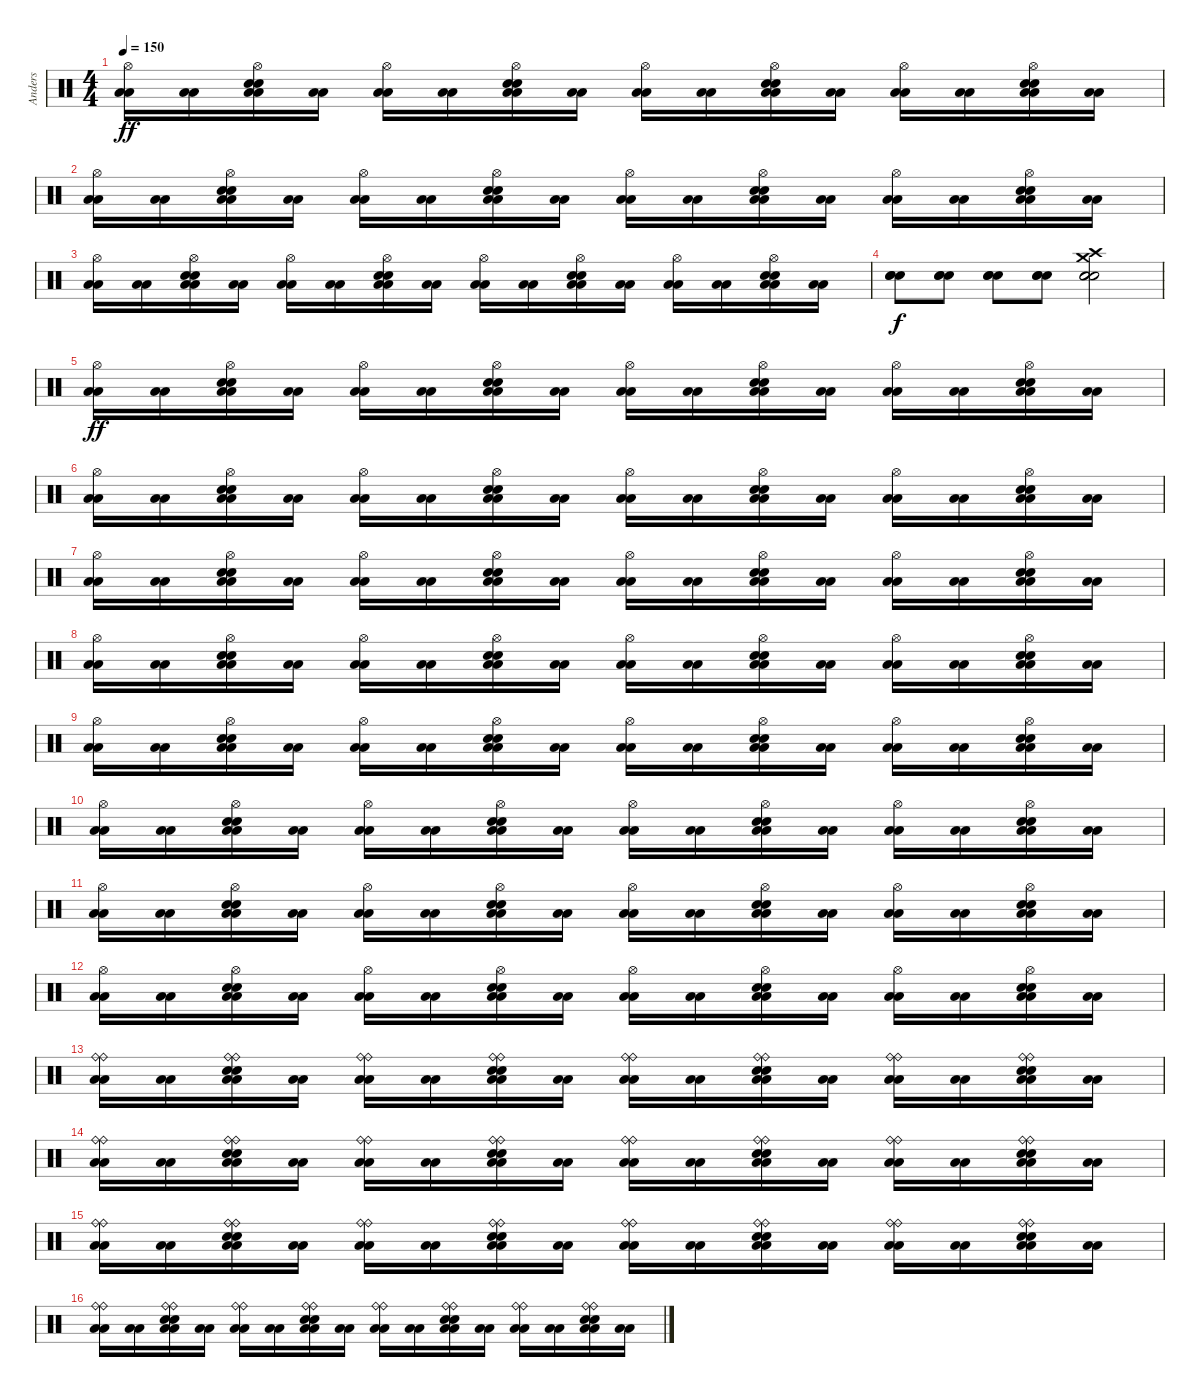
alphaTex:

\track ("Anders" "Anders") {instrument percussion}
\staff {score}
\articulation defaults
\ts (4 4)
\tempo 150
\clef neutral
\ks c
("Hi-Hat (open)" "Low Floor Tom (hit)" "Low Floor Tom (hit)").16{dy ff} ("Low Floor Tom (hit)" "Low Floor Tom (hit)").16 ("Hi-Hat (open)" "Electric Snare (hit)" "Electric Snare (hit)" "Low Floor Tom (hit)" "Low Floor Tom (hit)").16 ("Low Floor Tom (hit)" "Low Floor Tom (hit)").16 ("Hi-Hat (open)" "Low Floor Tom (hit)" "Low Floor Tom (hit)").16 ("Low Floor Tom (hit)" "Low Floor Tom (hit)").16 ("Hi-Hat (open)" "Electric Snare (hit)" "Electric Snare (hit)" "Low Floor Tom (hit)" "Low Floor Tom (hit)").16 ("Low Floor Tom (hit)" "Low Floor Tom (hit)").16 ("Hi-Hat (open)" "Low Floor Tom (hit)" "Low Floor Tom (hit)").16 ("Low Floor Tom (hit)" "Low Floor Tom (hit)").16 ("Hi-Hat (open)" "Electric Snare (hit)" "Electric Snare (hit)" "Low Floor Tom (hit)" "Low Floor Tom (hit)").16 ("Low Floor Tom (hit)" "Low Floor Tom (hit)").16 ("Hi-Hat (open)" "Low Floor Tom (hit)" "Low Floor Tom (hit)").16 ("Low Floor Tom (hit)" "Low Floor Tom (hit)").16 ("Hi-Hat (open)" "Electric Snare (hit)" "Electric Snare (hit)" "Low Floor Tom (hit)" "Low Floor Tom (hit)").16 ("Low Floor Tom (hit)" "Low Floor Tom (hit)").16 |
("Hi-Hat (open)" "Low Floor Tom (hit)" "Low Floor Tom (hit)").16 ("Low Floor Tom (hit)" "Low Floor Tom (hit)").16 ("Hi-Hat (open)" "Electric Snare (hit)" "Electric Snare (hit)" "Low Floor Tom (hit)" "Low Floor Tom (hit)").16 ("Low Floor Tom (hit)" "Low Floor Tom (hit)").16 ("Hi-Hat (open)" "Low Floor Tom (hit)" "Low Floor Tom (hit)").16 ("Low Floor Tom (hit)" "Low Floor Tom (hit)").16 ("Hi-Hat (open)" "Electric Snare (hit)" "Electric Snare (hit)" "Low Floor Tom (hit)" "Low Floor Tom (hit)").16 ("Low Floor Tom (hit)" "Low Floor Tom (hit)").16 ("Hi-Hat (open)" "Low Floor Tom (hit)" "Low Floor Tom (hit)").16 ("Low Floor Tom (hit)" "Low Floor Tom (hit)").16 ("Hi-Hat (open)" "Electric Snare (hit)" "Electric Snare (hit)" "Low Floor Tom (hit)" "Low Floor Tom (hit)").16 ("Low Floor Tom (hit)" "Low Floor Tom (hit)").16 ("Hi-Hat (open)" "Low Floor Tom (hit)" "Low Floor Tom (hit)").16 ("Low Floor Tom (hit)" "Low Floor Tom (hit)").16 ("Hi-Hat (open)" "Electric Snare (hit)" "Electric Snare (hit)" "Low Floor Tom (hit)" "Low Floor Tom (hit)").16 ("Low Floor Tom (hit)" "Low Floor Tom (hit)").16 |
("Hi-Hat (open)" "Low Floor Tom (hit)" "Low Floor Tom (hit)").16 ("Low Floor Tom (hit)" "Low Floor Tom (hit)").16 ("Hi-Hat (open)" "Electric Snare (hit)" "Electric Snare (hit)" "Low Floor Tom (hit)" "Low Floor Tom (hit)").16 ("Low Floor Tom (hit)" "Low Floor Tom (hit)").16 ("Hi-Hat (open)" "Low Floor Tom (hit)" "Low Floor Tom (hit)").16 ("Low Floor Tom (hit)" "Low Floor Tom (hit)").16 ("Hi-Hat (open)" "Electric Snare (hit)" "Electric Snare (hit)" "Low Floor Tom (hit)" "Low Floor Tom (hit)").16 ("Low Floor Tom (hit)" "Low Floor Tom (hit)").16 ("Hi-Hat (open)" "Low Floor Tom (hit)" "Low Floor Tom (hit)").16 ("Low Floor Tom (hit)" "Low Floor Tom (hit)").16 ("Hi-Hat (open)" "Electric Snare (hit)" "Electric Snare (hit)" "Low Floor Tom (hit)" "Low Floor Tom (hit)").16 ("Low Floor Tom (hit)" "Low Floor Tom (hit)").16 ("Hi-Hat (open)" "Low Floor Tom (hit)" "Low Floor Tom (hit)").16 ("Low Floor Tom (hit)" "Low Floor Tom (hit)").16 ("Hi-Hat (open)" "Electric Snare (hit)" "Electric Snare (hit)" "Low Floor Tom (hit)" "Low Floor Tom (hit)").16 ("Low Floor Tom (hit)" "Low Floor Tom (hit)").16 |
("Electric Snare (hit)" "Electric Snare (hit)" "Electric Snare (hit)").8{dy f} ("Electric Snare (hit)" "Electric Snare (hit)" "Electric Snare (hit)").8 ("Electric Snare (hit)" "Electric Snare (hit)" "Electric Snare (hit)").8 ("Electric Snare (hit)" "Electric Snare (hit)" "Electric Snare (hit)").8 ("Crash medium (hit)" "Crash high (hit)" "Electric Snare (hit)" "Electric Snare (hit)" "Electric Snare (hit)").2 |
("Hi-Hat (open)" "Low Floor Tom (hit)" "Low Floor Tom (hit)").16{dy ff} ("Low Floor Tom (hit)" "Low Floor Tom (hit)").16 ("Hi-Hat (open)" "Electric Snare (hit)" "Electric Snare (hit)" "Low Floor Tom (hit)" "Low Floor Tom (hit)").16 ("Low Floor Tom (hit)" "Low Floor Tom (hit)").16 ("Hi-Hat (open)" "Low Floor Tom (hit)" "Low Floor Tom (hit)").16 ("Low Floor Tom (hit)" "Low Floor Tom (hit)").16 ("Hi-Hat (open)" "Electric Snare (hit)" "Electric Snare (hit)" "Low Floor Tom (hit)" "Low Floor Tom (hit)").16 ("Low Floor Tom (hit)" "Low Floor Tom (hit)").16 ("Hi-Hat (open)" "Low Floor Tom (hit)" "Low Floor Tom (hit)").16 ("Low Floor Tom (hit)" "Low Floor Tom (hit)").16 ("Hi-Hat (open)" "Electric Snare (hit)" "Electric Snare (hit)" "Low Floor Tom (hit)" "Low Floor Tom (hit)").16 ("Low Floor Tom (hit)" "Low Floor Tom (hit)").16 ("Hi-Hat (open)" "Low Floor Tom (hit)" "Low Floor Tom (hit)").16 ("Low Floor Tom (hit)" "Low Floor Tom (hit)").16 ("Hi-Hat (open)" "Electric Snare (hit)" "Electric Snare (hit)" "Low Floor Tom (hit)" "Low Floor Tom (hit)").16 ("Low Floor Tom (hit)" "Low Floor Tom (hit)").16 |
("Hi-Hat (open)" "Low Floor Tom (hit)" "Low Floor Tom (hit)").16 ("Low Floor Tom (hit)" "Low Floor Tom (hit)").16 ("Hi-Hat (open)" "Electric Snare (hit)" "Electric Snare (hit)" "Low Floor Tom (hit)" "Low Floor Tom (hit)").16 ("Low Floor Tom (hit)" "Low Floor Tom (hit)").16 ("Hi-Hat (open)" "Low Floor Tom (hit)" "Low Floor Tom (hit)").16 ("Low Floor Tom (hit)" "Low Floor Tom (hit)").16 ("Hi-Hat (open)" "Electric Snare (hit)" "Electric Snare (hit)" "Low Floor Tom (hit)" "Low Floor Tom (hit)").16 ("Low Floor Tom (hit)" "Low Floor Tom (hit)").16 ("Hi-Hat (open)" "Low Floor Tom (hit)" "Low Floor Tom (hit)").16 ("Low Floor Tom (hit)" "Low Floor Tom (hit)").16 ("Hi-Hat (open)" "Electric Snare (hit)" "Electric Snare (hit)" "Low Floor Tom (hit)" "Low Floor Tom (hit)").16 ("Low Floor Tom (hit)" "Low Floor Tom (hit)").16 ("Hi-Hat (open)" "Low Floor Tom (hit)" "Low Floor Tom (hit)").16 ("Low Floor Tom (hit)" "Low Floor Tom (hit)").16 ("Hi-Hat (open)" "Electric Snare (hit)" "Electric Snare (hit)" "Low Floor Tom (hit)" "Low Floor Tom (hit)").16 ("Low Floor Tom (hit)" "Low Floor Tom (hit)").16 |
("Hi-Hat (open)" "Low Floor Tom (hit)" "Low Floor Tom (hit)").16 ("Low Floor Tom (hit)" "Low Floor Tom (hit)").16 ("Hi-Hat (open)" "Electric Snare (hit)" "Electric Snare (hit)" "Low Floor Tom (hit)" "Low Floor Tom (hit)").16 ("Low Floor Tom (hit)" "Low Floor Tom (hit)").16 ("Hi-Hat (open)" "Low Floor Tom (hit)" "Low Floor Tom (hit)").16 ("Low Floor Tom (hit)" "Low Floor Tom (hit)").16 ("Hi-Hat (open)" "Electric Snare (hit)" "Electric Snare (hit)" "Low Floor Tom (hit)" "Low Floor Tom (hit)").16 ("Low Floor Tom (hit)" "Low Floor Tom (hit)").16 ("Hi-Hat (open)" "Low Floor Tom (hit)" "Low Floor Tom (hit)").16 ("Low Floor Tom (hit)" "Low Floor Tom (hit)").16 ("Hi-Hat (open)" "Electric Snare (hit)" "Electric Snare (hit)" "Low Floor Tom (hit)" "Low Floor Tom (hit)").16 ("Low Floor Tom (hit)" "Low Floor Tom (hit)").16 ("Hi-Hat (open)" "Low Floor Tom (hit)" "Low Floor Tom (hit)").16 ("Low Floor Tom (hit)" "Low Floor Tom (hit)").16 ("Hi-Hat (open)" "Electric Snare (hit)" "Electric Snare (hit)" "Low Floor Tom (hit)" "Low Floor Tom (hit)").16 ("Low Floor Tom (hit)" "Low Floor Tom (hit)").16 |
("Hi-Hat (open)" "Low Floor Tom (hit)" "Low Floor Tom (hit)").16 ("Low Floor Tom (hit)" "Low Floor Tom (hit)").16 ("Hi-Hat (open)" "Electric Snare (hit)" "Electric Snare (hit)" "Low Floor Tom (hit)" "Low Floor Tom (hit)").16 ("Low Floor Tom (hit)" "Low Floor Tom (hit)").16 ("Hi-Hat (open)" "Low Floor Tom (hit)" "Low Floor Tom (hit)").16 ("Low Floor Tom (hit)" "Low Floor Tom (hit)").16 ("Hi-Hat (open)" "Electric Snare (hit)" "Electric Snare (hit)" "Low Floor Tom (hit)" "Low Floor Tom (hit)").16 ("Low Floor Tom (hit)" "Low Floor Tom (hit)").16 ("Hi-Hat (open)" "Low Floor Tom (hit)" "Low Floor Tom (hit)").16 ("Low Floor Tom (hit)" "Low Floor Tom (hit)").16 ("Hi-Hat (open)" "Electric Snare (hit)" "Electric Snare (hit)" "Low Floor Tom (hit)" "Low Floor Tom (hit)").16 ("Low Floor Tom (hit)" "Low Floor Tom (hit)").16 ("Hi-Hat (open)" "Low Floor Tom (hit)" "Low Floor Tom (hit)").16 ("Low Floor Tom (hit)" "Low Floor Tom (hit)").16 ("Hi-Hat (open)" "Electric Snare (hit)" "Electric Snare (hit)" "Low Floor Tom (hit)" "Low Floor Tom (hit)").16 ("Low Floor Tom (hit)" "Low Floor Tom (hit)").16 |
("Hi-Hat (open)" "Low Floor Tom (hit)" "Low Floor Tom (hit)").16 ("Low Floor Tom (hit)" "Low Floor Tom (hit)").16 ("Hi-Hat (open)" "Electric Snare (hit)" "Electric Snare (hit)" "Low Floor Tom (hit)" "Low Floor Tom (hit)").16 ("Low Floor Tom (hit)" "Low Floor Tom (hit)").16 ("Hi-Hat (open)" "Low Floor Tom (hit)" "Low Floor Tom (hit)").16 ("Low Floor Tom (hit)" "Low Floor Tom (hit)").16 ("Hi-Hat (open)" "Electric Snare (hit)" "Electric Snare (hit)" "Low Floor Tom (hit)" "Low Floor Tom (hit)").16 ("Low Floor Tom (hit)" "Low Floor Tom (hit)").16 ("Hi-Hat (open)" "Low Floor Tom (hit)" "Low Floor Tom (hit)").16 ("Low Floor Tom (hit)" "Low Floor Tom (hit)").16 ("Hi-Hat (open)" "Electric Snare (hit)" "Electric Snare (hit)" "Low Floor Tom (hit)" "Low Floor Tom (hit)").16 ("Low Floor Tom (hit)" "Low Floor Tom (hit)").16 ("Hi-Hat (open)" "Low Floor Tom (hit)" "Low Floor Tom (hit)").16 ("Low Floor Tom (hit)" "Low Floor Tom (hit)").16 ("Hi-Hat (open)" "Electric Snare (hit)" "Electric Snare (hit)" "Low Floor Tom (hit)" "Low Floor Tom (hit)").16 ("Low Floor Tom (hit)" "Low Floor Tom (hit)").16 |
("Hi-Hat (open)" "Low Floor Tom (hit)" "Low Floor Tom (hit)").16 ("Low Floor Tom (hit)" "Low Floor Tom (hit)").16 ("Hi-Hat (open)" "Electric Snare (hit)" "Electric Snare (hit)" "Low Floor Tom (hit)" "Low Floor Tom (hit)").16 ("Low Floor Tom (hit)" "Low Floor Tom (hit)").16 ("Hi-Hat (open)" "Low Floor Tom (hit)" "Low Floor Tom (hit)").16 ("Low Floor Tom (hit)" "Low Floor Tom (hit)").16 ("Hi-Hat (open)" "Electric Snare (hit)" "Electric Snare (hit)" "Low Floor Tom (hit)" "Low Floor Tom (hit)").16 ("Low Floor Tom (hit)" "Low Floor Tom (hit)").16 ("Hi-Hat (open)" "Low Floor Tom (hit)" "Low Floor Tom (hit)").16 ("Low Floor Tom (hit)" "Low Floor Tom (hit)").16 ("Hi-Hat (open)" "Electric Snare (hit)" "Electric Snare (hit)" "Low Floor Tom (hit)" "Low Floor Tom (hit)").16 ("Low Floor Tom (hit)" "Low Floor Tom (hit)").16 ("Hi-Hat (open)" "Low Floor Tom (hit)" "Low Floor Tom (hit)").16 ("Low Floor Tom (hit)" "Low Floor Tom (hit)").16 ("Hi-Hat (open)" "Electric Snare (hit)" "Electric Snare (hit)" "Low Floor Tom (hit)" "Low Floor Tom (hit)").16 ("Low Floor Tom (hit)" "Low Floor Tom (hit)").16 |
("Hi-Hat (open)" "Low Floor Tom (hit)" "Low Floor Tom (hit)").16 ("Low Floor Tom (hit)" "Low Floor Tom (hit)").16 ("Hi-Hat (open)" "Electric Snare (hit)" "Electric Snare (hit)" "Low Floor Tom (hit)" "Low Floor Tom (hit)").16 ("Low Floor Tom (hit)" "Low Floor Tom (hit)").16 ("Hi-Hat (open)" "Low Floor Tom (hit)" "Low Floor Tom (hit)").16 ("Low Floor Tom (hit)" "Low Floor Tom (hit)").16 ("Hi-Hat (open)" "Electric Snare (hit)" "Electric Snare (hit)" "Low Floor Tom (hit)" "Low Floor Tom (hit)").16 ("Low Floor Tom (hit)" "Low Floor Tom (hit)").16 ("Hi-Hat (open)" "Low Floor Tom (hit)" "Low Floor Tom (hit)").16 ("Low Floor Tom (hit)" "Low Floor Tom (hit)").16 ("Hi-Hat (open)" "Electric Snare (hit)" "Electric Snare (hit)" "Low Floor Tom (hit)" "Low Floor Tom (hit)").16 ("Low Floor Tom (hit)" "Low Floor Tom (hit)").16 ("Hi-Hat (open)" "Low Floor Tom (hit)" "Low Floor Tom (hit)").16 ("Low Floor Tom (hit)" "Low Floor Tom (hit)").16 ("Hi-Hat (open)" "Electric Snare (hit)" "Electric Snare (hit)" "Low Floor Tom (hit)" "Low Floor Tom (hit)").16 ("Low Floor Tom (hit)" "Low Floor Tom (hit)").16 |
("Hi-Hat (open)" "Low Floor Tom (hit)" "Low Floor Tom (hit)").16 ("Low Floor Tom (hit)" "Low Floor Tom (hit)").16 ("Hi-Hat (open)" "Electric Snare (hit)" "Electric Snare (hit)" "Low Floor Tom (hit)" "Low Floor Tom (hit)").16 ("Low Floor Tom (hit)" "Low Floor Tom (hit)").16 ("Hi-Hat (open)" "Low Floor Tom (hit)" "Low Floor Tom (hit)").16 ("Low Floor Tom (hit)" "Low Floor Tom (hit)").16 ("Hi-Hat (open)" "Electric Snare (hit)" "Electric Snare (hit)" "Low Floor Tom (hit)" "Low Floor Tom (hit)").16 ("Low Floor Tom (hit)" "Low Floor Tom (hit)").16 ("Hi-Hat (open)" "Low Floor Tom (hit)" "Low Floor Tom (hit)").16 ("Low Floor Tom (hit)" "Low Floor Tom (hit)").16 ("Hi-Hat (open)" "Electric Snare (hit)" "Electric Snare (hit)" "Low Floor Tom (hit)" "Low Floor Tom (hit)").16 ("Low Floor Tom (hit)" "Low Floor Tom (hit)").16 ("Hi-Hat (open)" "Low Floor Tom (hit)" "Low Floor Tom (hit)").16 ("Low Floor Tom (hit)" "Low Floor Tom (hit)").16 ("Hi-Hat (open)" "Electric Snare (hit)" "Electric Snare (hit)" "Low Floor Tom (hit)" "Low Floor Tom (hit)").16 ("Low Floor Tom (hit)" "Low Floor Tom (hit)").16 |
("Ride (bell)" "Ride (bell)" "Low Floor Tom (hit)" "Low Floor Tom (hit)").16 ("Low Floor Tom (hit)" "Low Floor Tom (hit)").16 ("Ride (bell)" "Ride (bell)" "Electric Snare (hit)" "Electric Snare (hit)" "Low Floor Tom (hit)" "Low Floor Tom (hit)").16 ("Low Floor Tom (hit)" "Low Floor Tom (hit)").16 ("Ride (bell)" "Ride (bell)" "Low Floor Tom (hit)" "Low Floor Tom (hit)").16 ("Low Floor Tom (hit)" "Low Floor Tom (hit)").16 ("Ride (bell)" "Ride (bell)" "Electric Snare (hit)" "Electric Snare (hit)" "Low Floor Tom (hit)" "Low Floor Tom (hit)").16 ("Low Floor Tom (hit)" "Low Floor Tom (hit)").16 ("Ride (bell)" "Ride (bell)" "Low Floor Tom (hit)" "Low Floor Tom (hit)").16 ("Low Floor Tom (hit)" "Low Floor Tom (hit)").16 ("Ride (bell)" "Ride (bell)" "Electric Snare (hit)" "Electric Snare (hit)" "Low Floor Tom (hit)" "Low Floor Tom (hit)").16 ("Low Floor Tom (hit)" "Low Floor Tom (hit)").16 ("Ride (bell)" "Ride (bell)" "Low Floor Tom (hit)" "Low Floor Tom (hit)").16 ("Low Floor Tom (hit)" "Low Floor Tom (hit)").16 ("Ride (bell)" "Ride (bell)" "Electric Snare (hit)" "Electric Snare (hit)" "Low Floor Tom (hit)" "Low Floor Tom (hit)").16 ("Low Floor Tom (hit)" "Low Floor Tom (hit)").16 |
("Ride (bell)" "Ride (bell)" "Low Floor Tom (hit)" "Low Floor Tom (hit)").16 ("Low Floor Tom (hit)" "Low Floor Tom (hit)").16 ("Ride (bell)" "Ride (bell)" "Electric Snare (hit)" "Electric Snare (hit)" "Low Floor Tom (hit)" "Low Floor Tom (hit)").16 ("Low Floor Tom (hit)" "Low Floor Tom (hit)").16 ("Ride (bell)" "Ride (bell)" "Low Floor Tom (hit)" "Low Floor Tom (hit)").16 ("Low Floor Tom (hit)" "Low Floor Tom (hit)").16 ("Ride (bell)" "Ride (bell)" "Electric Snare (hit)" "Electric Snare (hit)" "Low Floor Tom (hit)" "Low Floor Tom (hit)").16 ("Low Floor Tom (hit)" "Low Floor Tom (hit)").16 ("Ride (bell)" "Ride (bell)" "Low Floor Tom (hit)" "Low Floor Tom (hit)").16 ("Low Floor Tom (hit)" "Low Floor Tom (hit)").16 ("Ride (bell)" "Ride (bell)" "Electric Snare (hit)" "Electric Snare (hit)" "Low Floor Tom (hit)" "Low Floor Tom (hit)").16 ("Low Floor Tom (hit)" "Low Floor Tom (hit)").16 ("Ride (bell)" "Ride (bell)" "Low Floor Tom (hit)" "Low Floor Tom (hit)").16 ("Low Floor Tom (hit)" "Low Floor Tom (hit)").16 ("Ride (bell)" "Ride (bell)" "Electric Snare (hit)" "Electric Snare (hit)" "Low Floor Tom (hit)" "Low Floor Tom (hit)").16 ("Low Floor Tom (hit)" "Low Floor Tom (hit)").16 |
("Ride (bell)" "Ride (bell)" "Low Floor Tom (hit)" "Low Floor Tom (hit)").16 ("Low Floor Tom (hit)" "Low Floor Tom (hit)").16 ("Ride (bell)" "Ride (bell)" "Electric Snare (hit)" "Electric Snare (hit)" "Low Floor Tom (hit)" "Low Floor Tom (hit)").16 ("Low Floor Tom (hit)" "Low Floor Tom (hit)").16 ("Ride (bell)" "Ride (bell)" "Low Floor Tom (hit)" "Low Floor Tom (hit)").16 ("Low Floor Tom (hit)" "Low Floor Tom (hit)").16 ("Ride (bell)" "Ride (bell)" "Electric Snare (hit)" "Electric Snare (hit)" "Low Floor Tom (hit)" "Low Floor Tom (hit)").16 ("Low Floor Tom (hit)" "Low Floor Tom (hit)").16 ("Ride (bell)" "Ride (bell)" "Low Floor Tom (hit)" "Low Floor Tom (hit)").16 ("Low Floor Tom (hit)" "Low Floor Tom (hit)").16 ("Ride (bell)" "Ride (bell)" "Electric Snare (hit)" "Electric Snare (hit)" "Low Floor Tom (hit)" "Low Floor Tom (hit)").16 ("Low Floor Tom (hit)" "Low Floor Tom (hit)").16 ("Ride (bell)" "Ride (bell)" "Low Floor Tom (hit)" "Low Floor Tom (hit)").16 ("Low Floor Tom (hit)" "Low Floor Tom (hit)").16 ("Ride (bell)" "Ride (bell)" "Electric Snare (hit)" "Electric Snare (hit)" "Low Floor Tom (hit)" "Low Floor Tom (hit)").16 ("Low Floor Tom (hit)" "Low Floor Tom (hit)").16 |
("Ride (bell)" "Ride (bell)" "Low Floor Tom (hit)" "Low Floor Tom (hit)").16 ("Low Floor Tom (hit)" "Low Floor Tom (hit)").16 ("Ride (bell)" "Ride (bell)" "Electric Snare (hit)" "Electric Snare (hit)" "Low Floor Tom (hit)" "Low Floor Tom (hit)").16 ("Low Floor Tom (hit)" "Low Floor Tom (hit)").16 ("Ride (bell)" "Ride (bell)" "Low Floor Tom (hit)" "Low Floor Tom (hit)").16 ("Low Floor Tom (hit)" "Low Floor Tom (hit)").16 ("Ride (bell)" "Ride (bell)" "Electric Snare (hit)" "Electric Snare (hit)" "Low Floor Tom (hit)" "Low Floor Tom (hit)").16 ("Low Floor Tom (hit)" "Low Floor Tom (hit)").16 ("Ride (bell)" "Ride (bell)" "Low Floor Tom (hit)" "Low Floor Tom (hit)").16 ("Low Floor Tom (hit)" "Low Floor Tom (hit)").16 ("Ride (bell)" "Ride (bell)" "Electric Snare (hit)" "Electric Snare (hit)" "Low Floor Tom (hit)" "Low Floor Tom (hit)").16 ("Low Floor Tom (hit)" "Low Floor Tom (hit)").16 ("Ride (bell)" "Ride (bell)" "Low Floor Tom (hit)" "Low Floor Tom (hit)").16 ("Low Floor Tom (hit)" "Low Floor Tom (hit)").16 ("Ride (bell)" "Ride (bell)" "Electric Snare (hit)" "Electric Snare (hit)" "Low Floor Tom (hit)" "Low Floor Tom (hit)").16 ("Low Floor Tom (hit)" "Low Floor Tom (hit)").16
